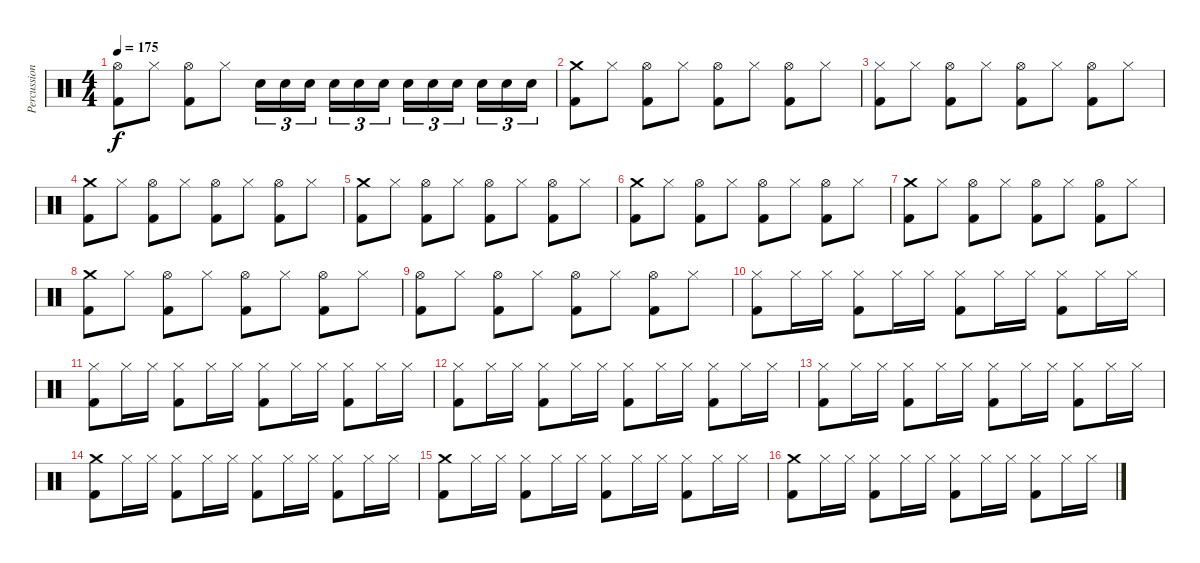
\track ("Percussions" "Percussion") {instrument percussion}
\staff {score}
\articulation defaults
\ts (4 4)
\tempo 175
\clef neutral
\ks c
("Hi-Hat (open)" "Kick (hit) 2").8{dy f} "Hi-Hat (closed)".8 ("Hi-Hat (open)" "Kick (hit) 2").8 "Hi-Hat (closed)".8 "Snare (hit) 2".16{tu (3 2)} "Snare (hit) 2".16{tu (3 2)} "Snare (hit) 2".16{tu (3 2)} "Snare (hit) 2".16{tu (3 2)} "Snare (hit) 2".16{tu (3 2)} "Snare (hit) 2".16{tu (3 2)} "Snare (hit) 2".16{tu (3 2)} "Snare (hit) 2".16{tu (3 2)} "Snare (hit) 2".16{tu (3 2)} "Snare (hit) 2".16{tu (3 2)} "Snare (hit) 2".16{tu (3 2)} "Snare (hit) 2".16{tu (3 2)} |
("Crash medium (hit)" "Kick (hit) 2").8 "Hi-Hat (closed)".8 ("Hi-Hat (open)" "Kick (hit) 2").8 "Hi-Hat (closed)".8 ("Hi-Hat (open)" "Kick (hit) 2").8 "Hi-Hat (closed)".8 ("Hi-Hat (open)" "Kick (hit) 2").8 "Hi-Hat (closed)".8 |
("Hi-Hat (closed)" "Kick (hit) 2").8 "Hi-Hat (closed)".8 ("Hi-Hat (open)" "Kick (hit) 2").8 "Hi-Hat (closed)".8 ("Hi-Hat (open)" "Kick (hit) 2").8 "Hi-Hat (closed)".8 ("Hi-Hat (open)" "Kick (hit) 2").8 "Hi-Hat (closed)".8 |
("Crash medium (hit)" "Kick (hit) 2").8 "Hi-Hat (closed)".8 ("Hi-Hat (open)" "Kick (hit) 2").8 "Hi-Hat (closed)".8 ("Hi-Hat (open)" "Kick (hit) 2").8 "Hi-Hat (closed)".8 ("Hi-Hat (open)" "Kick (hit) 2").8 "Hi-Hat (closed)".8 |
("Crash medium (hit)" "Kick (hit) 2").8 "Hi-Hat (closed)".8 ("Hi-Hat (open)" "Kick (hit) 2").8 "Hi-Hat (closed)".8 ("Hi-Hat (open)" "Kick (hit) 2").8 "Hi-Hat (closed)".8 ("Hi-Hat (open)" "Kick (hit) 2").8 "Hi-Hat (closed)".8 |
("Crash medium (hit)" "Kick (hit) 2").8 "Hi-Hat (closed)".8 ("Hi-Hat (open)" "Kick (hit) 2").8 "Hi-Hat (closed)".8 ("Hi-Hat (open)" "Kick (hit) 2").8 "Hi-Hat (closed)".8 ("Hi-Hat (open)" "Kick (hit) 2").8 "Hi-Hat (closed)".8 |
("Crash medium (hit)" "Kick (hit) 2").8 "Hi-Hat (closed)".8 ("Hi-Hat (open)" "Kick (hit) 2").8 "Hi-Hat (closed)".8 ("Hi-Hat (open)" "Kick (hit) 2").8 "Hi-Hat (closed)".8 ("Hi-Hat (open)" "Kick (hit) 2").8 "Hi-Hat (closed)".8 |
("Crash medium (hit)" "Kick (hit) 2").8 "Hi-Hat (closed)".8 ("Hi-Hat (open)" "Kick (hit) 2").8 "Hi-Hat (closed)".8 ("Hi-Hat (open)" "Kick (hit) 2").8 "Hi-Hat (closed)".8 ("Hi-Hat (open)" "Kick (hit) 2").8 "Hi-Hat (closed)".8 |
("Hi-Hat (open)" "Kick (hit) 2").8 "Hi-Hat (closed)".8 ("Hi-Hat (open)" "Kick (hit) 2").8 "Hi-Hat (closed)".8 ("Hi-Hat (open)" "Kick (hit) 2").8 "Hi-Hat (closed)".8 ("Hi-Hat (open)" "Kick (hit) 2").8 "Hi-Hat (closed)".8 |
("Hi-Hat (closed)" "Kick (hit) 2").8 "Hi-Hat (closed)".16 "Hi-Hat (closed)".16 ("Hi-Hat (closed)" "Kick (hit) 2").8 "Hi-Hat (closed)".16 "Hi-Hat (closed)".16 ("Hi-Hat (closed)" "Kick (hit) 2").8 "Hi-Hat (closed)".16 "Hi-Hat (closed)".16 ("Hi-Hat (closed)" "Kick (hit) 2").8 "Hi-Hat (closed)".16 "Hi-Hat (closed)".16 |
("Hi-Hat (closed)" "Kick (hit) 2").8 "Hi-Hat (closed)".16 "Hi-Hat (closed)".16 ("Hi-Hat (closed)" "Kick (hit) 2").8 "Hi-Hat (closed)".16 "Hi-Hat (closed)".16 ("Hi-Hat (closed)" "Kick (hit) 2").8 "Hi-Hat (closed)".16 "Hi-Hat (closed)".16 ("Hi-Hat (closed)" "Kick (hit) 2").8 "Hi-Hat (closed)".16 "Hi-Hat (closed)".16 |
("Hi-Hat (closed)" "Kick (hit) 2").8 "Hi-Hat (closed)".16 "Hi-Hat (closed)".16 ("Hi-Hat (closed)" "Kick (hit) 2").8 "Hi-Hat (closed)".16 "Hi-Hat (closed)".16 ("Hi-Hat (closed)" "Kick (hit) 2").8 "Hi-Hat (closed)".16 "Hi-Hat (closed)".16 ("Hi-Hat (closed)" "Kick (hit) 2").8 "Hi-Hat (closed)".16 "Hi-Hat (closed)".16 |
("Hi-Hat (closed)" "Kick (hit) 2").8 "Hi-Hat (closed)".16 "Hi-Hat (closed)".16 ("Hi-Hat (closed)" "Kick (hit) 2").8 "Hi-Hat (closed)".16 "Hi-Hat (closed)".16 ("Hi-Hat (closed)" "Kick (hit) 2").8 "Hi-Hat (closed)".16 "Hi-Hat (closed)".16 ("Hi-Hat (closed)" "Kick (hit) 2").8 "Hi-Hat (closed)".16 "Hi-Hat (closed)".16 |
("Crash medium (hit)" "Kick (hit) 2").8 "Hi-Hat (closed)".16 "Hi-Hat (closed)".16 ("Hi-Hat (closed)" "Kick (hit) 2").8 "Hi-Hat (closed)".16 "Hi-Hat (closed)".16 ("Hi-Hat (closed)" "Kick (hit) 2").8 "Hi-Hat (closed)".16 "Hi-Hat (closed)".16 ("Hi-Hat (closed)" "Kick (hit) 2").8 "Hi-Hat (closed)".16 "Hi-Hat (closed)".16 |
("Crash medium (hit)" "Kick (hit) 2").8 "Hi-Hat (closed)".16 "Hi-Hat (closed)".16 ("Hi-Hat (closed)" "Kick (hit) 2").8 "Hi-Hat (closed)".16 "Hi-Hat (closed)".16 ("Hi-Hat (closed)" "Kick (hit) 2").8 "Hi-Hat (closed)".16 "Hi-Hat (closed)".16 ("Hi-Hat (closed)" "Kick (hit) 2").8 "Hi-Hat (closed)".16 "Hi-Hat (closed)".16 |
("Crash medium (hit)" "Kick (hit) 2").8 "Hi-Hat (closed)".16 "Hi-Hat (closed)".16 ("Hi-Hat (closed)" "Kick (hit) 2").8 "Hi-Hat (closed)".16 "Hi-Hat (closed)".16 ("Hi-Hat (closed)" "Kick (hit) 2").8 "Hi-Hat (closed)".16 "Hi-Hat (closed)".16 ("Hi-Hat (closed)" "Kick (hit) 2").8 "Hi-Hat (closed)".16 "Hi-Hat (closed)".16
